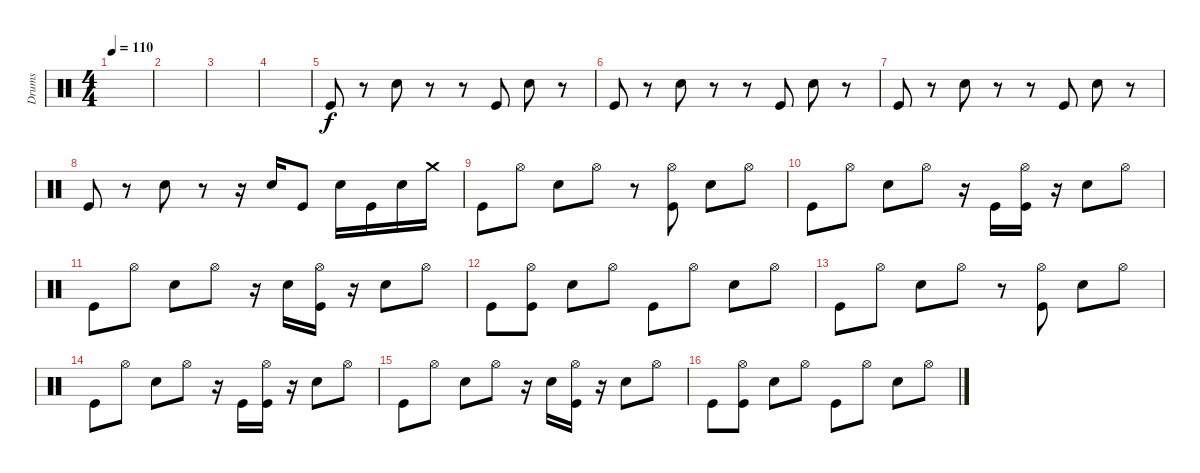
\track ("Drums" "Drums") {instrument percussion}
\staff {score}
\articulation defaults
\ts (4 4)
\tempo 110
\clef neutral
\ks c
|
|
|
|
"Kick (hit)".8 r.8 "Electric Snare (hit)".8 r.8 r.8 "Kick (hit)".8 "Electric Snare (hit)".8 r.8 |
"Kick (hit)".8 r.8 "Electric Snare (hit)".8 r.8 r.8 "Kick (hit)".8 "Electric Snare (hit)".8 r.8 |
"Kick (hit)".8 r.8 "Electric Snare (hit)".8 r.8 r.8 "Kick (hit)".8 "Electric Snare (hit)".8 r.8 |
"Kick (hit)".8 r.8 "Electric Snare (hit)".8 r.8 r.16 "Electric Snare (hit)".16 "Kick (hit)".8 "Electric Snare (hit)".16 "Kick (hit)".16 "Electric Snare (hit)".16 "Crash medium (hit)".16 |
"Kick (hit)".8 "Hi-Hat (open)".8 "Electric Snare (hit)".8 "Hi-Hat (open)".8 r.8 ("Hi-Hat (open)" "Kick (hit)").8 "Electric Snare (hit)".8 "Hi-Hat (open)".8 |
"Kick (hit)".8 "Hi-Hat (open)".8 "Electric Snare (hit)".8 "Hi-Hat (open)".8 r.16 "Kick (hit)".16 ("Hi-Hat (open)" "Kick (hit)").16 r.16 "Electric Snare (hit)".8 "Hi-Hat (open)".8 |
"Kick (hit)".8 "Hi-Hat (open)".8 "Electric Snare (hit)".8 "Hi-Hat (open)".8 r.16 "Electric Snare (hit)".16 ("Hi-Hat (open)" "Kick (hit)").16 r.16 "Electric Snare (hit)".8 "Hi-Hat (open)".8 |
"Kick (hit)".8 ("Hi-Hat (open)" "Kick (hit)").8 "Electric Snare (hit)".8 "Hi-Hat (open)".8 "Kick (hit)".8 "Hi-Hat (open)".8 "Electric Snare (hit)".8 "Hi-Hat (open)".8 |
"Kick (hit)".8 "Hi-Hat (open)".8 "Electric Snare (hit)".8 "Hi-Hat (open)".8 r.8 ("Hi-Hat (open)" "Kick (hit)").8 "Electric Snare (hit)".8 "Hi-Hat (open)".8 |
"Kick (hit)".8 "Hi-Hat (open)".8 "Electric Snare (hit)".8 "Hi-Hat (open)".8 r.16 "Kick (hit)".16 ("Hi-Hat (open)" "Kick (hit)").16 r.16 "Electric Snare (hit)".8 "Hi-Hat (open)".8 |
"Kick (hit)".8 "Hi-Hat (open)".8 "Electric Snare (hit)".8 "Hi-Hat (open)".8 r.16 "Electric Snare (hit)".16 ("Hi-Hat (open)" "Kick (hit)").16 r.16 "Electric Snare (hit)".8 "Hi-Hat (open)".8 |
"Kick (hit)".8 ("Hi-Hat (open)" "Kick (hit)").8 "Electric Snare (hit)".8 "Hi-Hat (open)".8 "Kick (hit)".8 "Hi-Hat (open)".8 "Electric Snare (hit)".8 "Hi-Hat (open)".8
